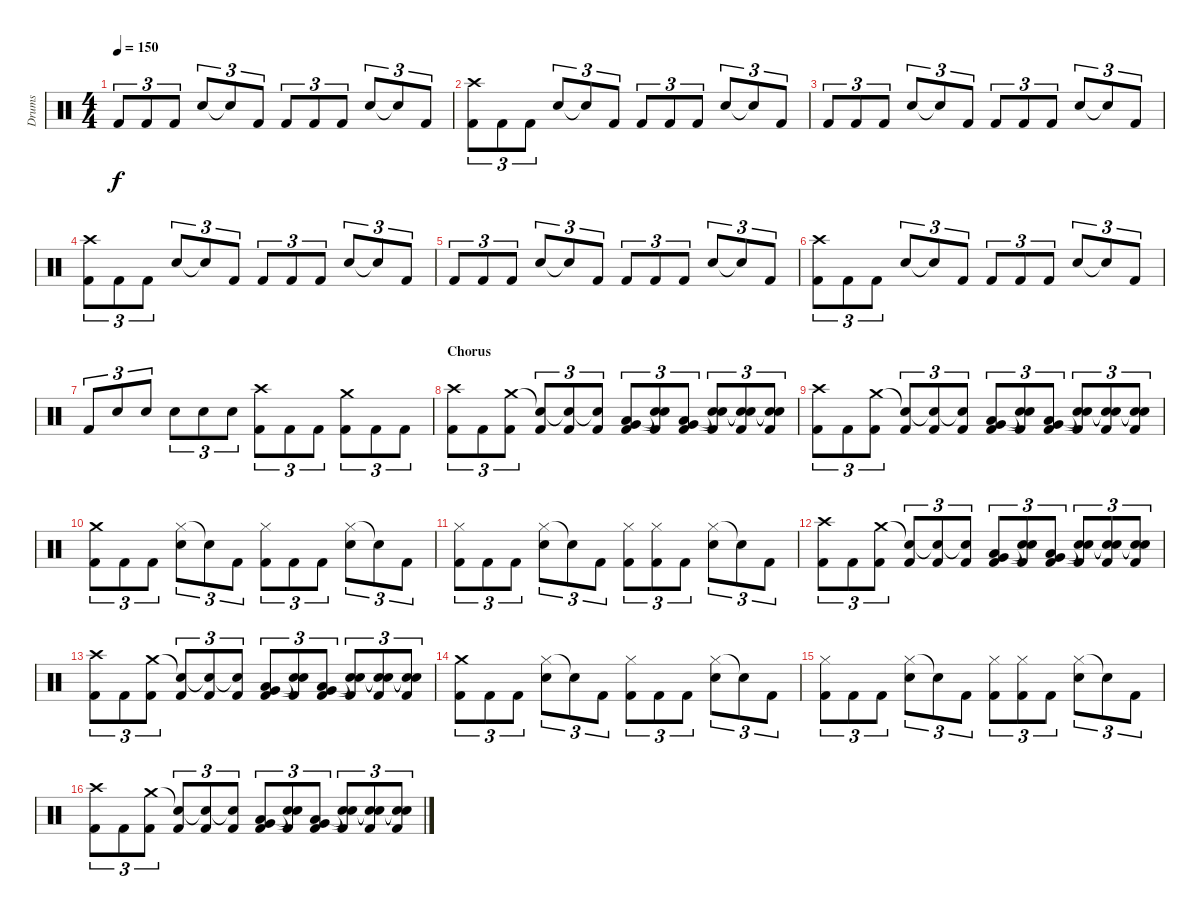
\track ("Drums" "Drums") {instrument percussion}
\staff {score}
\articulation defaults
\ts (4 4)
\tempo 150
\clef neutral
\ks c "Kick (hit) 2".8{tu (3 2) dy f} "Kick (hit) 2".8{tu (3 2)} "Kick (hit) 2".8{tu (3 2)} "Electric Snare (hit)".8{tu (3 2)} "Snare (hit)"{t}.8{tu (3 2)} "Kick (hit) 2".8{tu (3 2)} "Kick (hit) 2".8{tu (3 2)} "Kick (hit) 2".8{tu (3 2)} "Kick (hit) 2".8{tu (3 2)} "Electric Snare (hit)".8{tu (3 2)} "Snare (hit)"{t}.8{tu (3 2)} "Kick (hit) 2".8{tu (3 2)}
|
("Crash high (hit)" "Kick (hit) 2").8{tu (3 2)} "Kick (hit) 2".8{tu (3 2)} "Kick (hit) 2".8{tu (3 2)} "Electric Snare (hit)".8{tu (3 2)} "Snare (hit)"{t}.8{tu (3 2)} "Kick (hit) 2".8{tu (3 2)} "Kick (hit) 2".8{tu (3 2)} "Kick (hit) 2".8{tu (3 2)} "Kick (hit) 2".8{tu (3 2)} "Electric Snare (hit)".8{tu (3 2)} "Snare (hit)"{t}.8{tu (3 2)} "Kick (hit) 2".8{tu (3 2)} |
"Kick (hit) 2".8{tu (3 2)} "Kick (hit) 2".8{tu (3 2)} "Kick (hit) 2".8{tu (3 2)} "Electric Snare (hit)".8{tu (3 2)} "Snare (hit)"{t}.8{tu (3 2)} "Kick (hit) 2".8{tu (3 2)} "Kick (hit) 2".8{tu (3 2)} "Kick (hit) 2".8{tu (3 2)} "Kick (hit) 2".8{tu (3 2)} "Electric Snare (hit)".8{tu (3 2)} "Snare (hit)"{t}.8{tu (3 2)} "Kick (hit) 2".8{tu (3 2)} |
("Crash high (hit)" "Kick (hit) 2").8{tu (3 2)} "Kick (hit) 2".8{tu (3 2)} "Kick (hit) 2".8{tu (3 2)} "Electric Snare (hit)".8{tu (3 2)} "Snare (hit)"{t}.8{tu (3 2)} "Kick (hit) 2".8{tu (3 2)} "Kick (hit) 2".8{tu (3 2)} "Kick (hit) 2".8{tu (3 2)} "Kick (hit) 2".8{tu (3 2)} "Electric Snare (hit)".8{tu (3 2)} "Snare (hit)"{t}.8{tu (3 2)} "Kick (hit) 2".8{tu (3 2)} |
"Kick (hit) 2".8{tu (3 2)} "Kick (hit) 2".8{tu (3 2)} "Kick (hit) 2".8{tu (3 2)} "Electric Snare (hit)".8{tu (3 2)} "Snare (hit)"{t}.8{tu (3 2)} "Kick (hit) 2".8{tu (3 2)} "Kick (hit) 2".8{tu (3 2)} "Kick (hit) 2".8{tu (3 2)} "Kick (hit) 2".8{tu (3 2)} "Electric Snare (hit)".8{tu (3 2)} "Snare (hit)"{t}.8{tu (3 2)} "Kick (hit) 2".8{tu (3 2)} |
("Crash high (hit)" "Kick (hit) 2").8{tu (3 2)} "Kick (hit) 2".8{tu (3 2)} "Kick (hit) 2".8{tu (3 2)} "Electric Snare (hit)".8{tu (3 2)} "Snare (hit)"{t}.8{tu (3 2)} "Kick (hit) 2".8{tu (3 2)} "Kick (hit) 2".8{tu (3 2)} "Kick (hit) 2".8{tu (3 2)} "Kick (hit) 2".8{tu (3 2)} "Electric Snare (hit)".8{tu (3 2)} "Snare (hit)"{t}.8{tu (3 2)} "Kick (hit) 2".8{tu (3 2)} |
"Kick (hit) 2".8{tu (3 2)} "Electric Snare (hit)".8{tu (3 2)} "Electric Snare (hit)".8{tu (3 2)} "Electric Snare (hit)".8{tu (3 2)} "Electric Snare (hit)".8{tu (3 2)} "Electric Snare (hit)".8{tu (3 2)} ("Crash high (hit)" "Kick (hit) 2").8{tu (3 2)} "Kick (hit) 2".8{tu (3 2)} "Kick (hit) 2".8{tu (3 2)} ("Crash medium (hit)" "Kick (hit) 2").8{tu (3 2)} "Kick (hit) 2".8{tu (3 2)} "Kick (hit) 2".8{tu (3 2)} |
\section ("" "Chorus")
("Crash high (hit)" "Kick (hit) 2").8{tu (3 2)} "Kick (hit) 2".8{tu (3 2)} ("Crash medium (hit)" "Kick (hit) 2").8{tu (3 2)} ("Snare (hit)"{t} "Kick (hit) 2").8{tu (3 2)} ("Snare (hit)"{t} "Kick (hit) 2").8{tu (3 2)} ("Snare (hit)"{t} "Kick (hit) 2").8{tu (3 2)} ("Low Tom (hit)" "Very Low Tom (hit)" "Kick (hit) 2").8{tu (3 2)} ("Snare (hit)"{t} "Snare (hit)"{t} "Kick (hit) 2").8{tu (3 2)} ("Low Tom (hit)" "Very Low Tom (hit)" "Kick (hit) 2").8{tu (3 2)} ("Snare (hit)"{t} "Snare (hit)"{t} "Kick (hit) 2").8{tu (3 2)} ("Snare (hit)"{t} "Snare (hit)"{t} "Kick (hit) 2").8{tu (3 2)} ("Snare (hit)"{t} "Snare (hit)"{t} "Kick (hit) 2").8{tu (3 2)} |
("Crash high (hit)" "Kick (hit) 2").8{tu (3 2)} "Kick (hit) 2".8{tu (3 2)} ("Crash medium (hit)" "Kick (hit) 2").8{tu (3 2)} ("Snare (hit)"{t} "Kick (hit) 2").8{tu (3 2)} ("Snare (hit)"{t} "Kick (hit) 2").8{tu (3 2)} ("Snare (hit)"{t} "Kick (hit) 2").8{tu (3 2)} ("Low Tom (hit)" "Very Low Tom (hit)" "Kick (hit) 2").8{tu (3 2)} ("Snare (hit)"{t} "Snare (hit)"{t} "Kick (hit) 2").8{tu (3 2)} ("Low Tom (hit)" "Very Low Tom (hit)" "Kick (hit) 2").8{tu (3 2)} ("Snare (hit)"{t} "Snare (hit)"{t} "Kick (hit) 2").8{tu (3 2)} ("Snare (hit)"{t} "Snare (hit)"{t} "Kick (hit) 2").8{tu (3 2)} ("Snare (hit)"{t} "Snare (hit)"{t} "Kick (hit) 2").8{tu (3 2)} |
("Crash medium (hit)" "Kick (hit) 2").8{tu (3 2)} "Kick (hit) 2".8{tu (3 2)} "Kick (hit) 2".8{tu (3 2)} ("Hi-Hat (closed)" "Electric Snare (hit)").8{tu (3 2)} "Snare (hit)"{t}.8{tu (3 2)} "Kick (hit) 2".8{tu (3 2)} ("Hi-Hat (closed)" "Kick (hit) 2").8{tu (3 2)} "Kick (hit) 2".8{tu (3 2)} "Kick (hit) 2".8{tu (3 2)} ("Hi-Hat (closed)" "Electric Snare (hit)").8{tu (3 2)} "Snare (hit)"{t}.8{tu (3 2)} "Kick (hit) 2".8{tu (3 2)} |
("Hi-Hat (closed)" "Kick (hit) 2").8{tu (3 2)} "Kick (hit) 2".8{tu (3 2)} "Kick (hit) 2".8{tu (3 2)} ("Hi-Hat (closed)" "Electric Snare (hit)").8{tu (3 2)} "Snare (hit)"{t}.8{tu (3 2)} "Kick (hit) 2".8{tu (3 2)} ("Hi-Hat (closed)" "Kick (hit) 2").8{tu (3 2)} ("Hi-Hat (closed)" "Kick (hit) 2").8{tu (3 2)} "Kick (hit) 2".8{tu (3 2)} ("Hi-Hat (closed)" "Electric Snare (hit)").8{tu (3 2)} "Snare (hit)"{t}.8{tu (3 2)} "Kick (hit) 2".8{tu (3 2)} |
("Crash high (hit)" "Kick (hit) 2").8{tu (3 2)} "Kick (hit) 2".8{tu (3 2)} ("Crash medium (hit)" "Kick (hit) 2").8{tu (3 2)} ("Snare (hit)"{t} "Kick (hit) 2").8{tu (3 2)} ("Snare (hit)"{t} "Kick (hit) 2").8{tu (3 2)} ("Snare (hit)"{t} "Kick (hit) 2").8{tu (3 2)} ("Low Tom (hit)" "Very Low Tom (hit)" "Kick (hit) 2").8{tu (3 2)} ("Snare (hit)"{t} "Snare (hit)"{t} "Kick (hit) 2").8{tu (3 2)} ("Low Tom (hit)" "Very Low Tom (hit)" "Kick (hit) 2").8{tu (3 2)} ("Snare (hit)"{t} "Snare (hit)"{t} "Kick (hit) 2").8{tu (3 2)} ("Snare (hit)"{t} "Snare (hit)"{t} "Kick (hit) 2").8{tu (3 2)} ("Snare (hit)"{t} "Snare (hit)"{t} "Kick (hit) 2").8{tu (3 2)} |
("Crash high (hit)" "Kick (hit) 2").8{tu (3 2)} "Kick (hit) 2".8{tu (3 2)} ("Crash medium (hit)" "Kick (hit) 2").8{tu (3 2)} ("Snare (hit)"{t} "Kick (hit) 2").8{tu (3 2)} ("Snare (hit)"{t} "Kick (hit) 2").8{tu (3 2)} ("Snare (hit)"{t} "Kick (hit) 2").8{tu (3 2)} ("Low Tom (hit)" "Very Low Tom (hit)" "Kick (hit) 2").8{tu (3 2)} ("Snare (hit)"{t} "Snare (hit)"{t} "Kick (hit) 2").8{tu (3 2)} ("Low Tom (hit)" "Very Low Tom (hit)" "Kick (hit) 2").8{tu (3 2)} ("Snare (hit)"{t} "Snare (hit)"{t} "Kick (hit) 2").8{tu (3 2)} ("Snare (hit)"{t} "Snare (hit)"{t} "Kick (hit) 2").8{tu (3 2)} ("Snare (hit)"{t} "Snare (hit)"{t} "Kick (hit) 2").8{tu (3 2)} |
("Crash medium (hit)" "Kick (hit) 2").8{tu (3 2)} "Kick (hit) 2".8{tu (3 2)} "Kick (hit) 2".8{tu (3 2)} ("Hi-Hat (closed)" "Electric Snare (hit)").8{tu (3 2)} "Snare (hit)"{t}.8{tu (3 2)} "Kick (hit) 2".8{tu (3 2)} ("Hi-Hat (closed)" "Kick (hit) 2").8{tu (3 2)} "Kick (hit) 2".8{tu (3 2)} "Kick (hit) 2".8{tu (3 2)} ("Hi-Hat (closed)" "Electric Snare (hit)").8{tu (3 2)} "Snare (hit)"{t}.8{tu (3 2)} "Kick (hit) 2".8{tu (3 2)} |
("Hi-Hat (closed)" "Kick (hit) 2").8{tu (3 2)} "Kick (hit) 2".8{tu (3 2)} "Kick (hit) 2".8{tu (3 2)} ("Hi-Hat (closed)" "Electric Snare (hit)").8{tu (3 2)} "Snare (hit)"{t}.8{tu (3 2)} "Kick (hit) 2".8{tu (3 2)} ("Hi-Hat (closed)" "Kick (hit) 2").8{tu (3 2)} ("Hi-Hat (closed)" "Kick (hit) 2").8{tu (3 2)} "Kick (hit) 2".8{tu (3 2)} ("Hi-Hat (closed)" "Electric Snare (hit)").8{tu (3 2)} "Snare (hit)"{t}.8{tu (3 2)} "Kick (hit) 2".8{tu (3 2)} |
("Crash high (hit)" "Kick (hit) 2").8{tu (3 2)} "Kick (hit) 2".8{tu (3 2)} ("Crash medium (hit)" "Kick (hit) 2").8{tu (3 2)} ("Snare (hit)"{t} "Kick (hit) 2").8{tu (3 2)} ("Snare (hit)"{t} "Kick (hit) 2").8{tu (3 2)} ("Snare (hit)"{t} "Kick (hit) 2").8{tu (3 2)} ("Low Tom (hit)" "Very Low Tom (hit)" "Kick (hit) 2").8{tu (3 2)} ("Snare (hit)"{t} "Snare (hit)"{t} "Kick (hit) 2").8{tu (3 2)} ("Low Tom (hit)" "Very Low Tom (hit)" "Kick (hit) 2").8{tu (3 2)} ("Snare (hit)"{t} "Snare (hit)"{t} "Kick (hit) 2").8{tu (3 2)} ("Snare (hit)"{t} "Snare (hit)"{t} "Kick (hit) 2").8{tu (3 2)} ("Snare (hit)"{t} "Snare (hit)"{t} "Kick (hit) 2").8{tu (3 2)}
